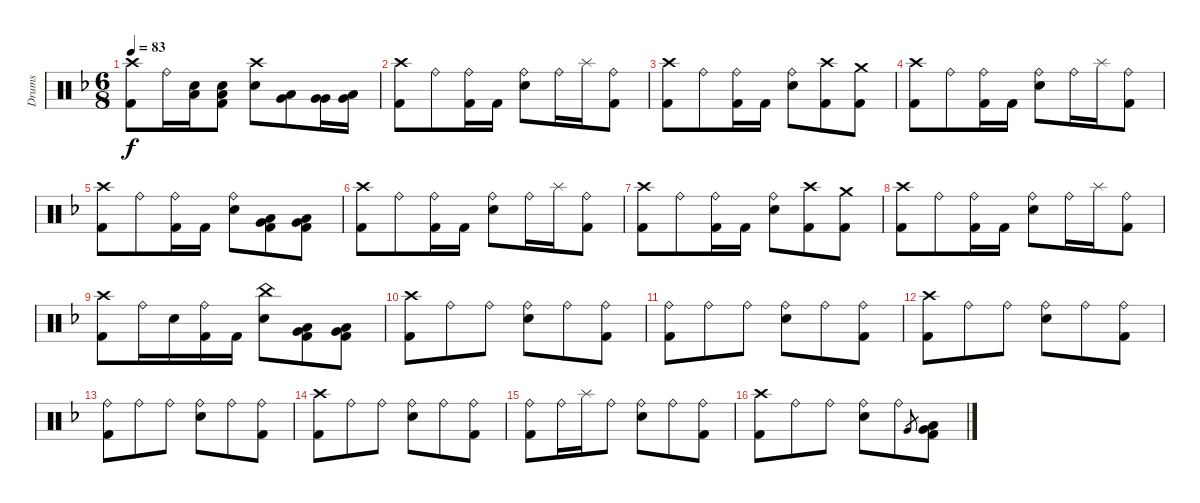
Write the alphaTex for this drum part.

\track ("Drums" "Drums") {instrument percussion}
\staff {score}
\articulation defaults
\ts (6 8)
\tempo 83
\clef neutral
\ks f
("Crash high (hit)" "Kick (hit) 2").8{dy f} "Ride (bell)".16 ("Snare (hit) 2" "Low Floor Tom (hit)").16 ("Snare (hit) 2" "Low Floor Tom (hit)" "Kick (hit) 2").8 ("Crash high (hit)" "Snare (hit) 2").8 ("Very Low Tom (hit)" "Low Tom (hit)").8 ("Very Low Tom (hit)" "Very Low Tom (hit)").16 ("Very Low Tom (hit)" "Low Floor Tom (hit)").16 |
("Crash high (hit)" "Kick (hit) 2").8 "Ride (bell)".8 ("Ride (bell)" "Kick (hit) 2").16 "Kick (hit) 2".16 ("Ride (bell)" "Snare (hit) 2").8 "Ride (bell)".16 "Splash (hit)".16 ("Ride (bell)" "Kick (hit) 2").8 |
("Crash high (hit)" "Kick (hit) 2").8 "Ride (bell)".8 ("Ride (bell)" "Kick (hit) 2").16 "Kick (hit) 2".16 ("Ride (bell)" "Snare (hit) 2").8 ("Crash high (hit)" "Kick (hit) 2").8 ("Crash medium (hit)" "Kick (hit) 2").8 |
("Crash high (hit)" "Kick (hit) 2").8 "Ride (bell)".8 ("Ride (bell)" "Kick (hit) 2").16 "Kick (hit) 2".16 ("Ride (bell)" "Snare (hit) 2").8 "Ride (bell)".16 "Splash (hit)".16 ("Ride (bell)" "Kick (hit) 2").8 |
("Crash high (hit)" "Kick (hit) 2").8 "Ride (bell)".8 ("Ride (bell)" "Kick (hit) 2").16 "Kick (hit) 2".16 ("Ride (bell)" "Snare (hit) 2").8 ("Low Tom (hit)" "Very Low Tom (hit)" "Kick (hit) 2").8 ("Very Low Tom (hit)" "Low Floor Tom (hit)" "Kick (hit) 2").8 |
("Crash high (hit)" "Kick (hit) 2").8 "Ride (bell)".8 ("Ride (bell)" "Kick (hit) 2").16 "Kick (hit) 2".16 ("Ride (bell)" "Snare (hit) 2").8 "Ride (bell)".16 "Splash (hit)".16 ("Ride (bell)" "Kick (hit) 2").8 |
("Crash high (hit)" "Kick (hit) 2").8 "Ride (bell)".8 ("Ride (bell)" "Kick (hit) 2").16 "Kick (hit) 2".16 ("Ride (bell)" "Snare (hit) 2").8 ("Crash high (hit)" "Kick (hit) 2").8 ("Crash medium (hit)" "Kick (hit) 2").8 |
("Crash high (hit)" "Kick (hit) 2").8 "Ride (bell)".8 ("Ride (bell)" "Kick (hit) 2").16 "Kick (hit) 2".16 ("Ride (bell)" "Snare (hit) 2").8 "Ride (bell)".16 "Splash (hit)".16 ("Ride (bell)" "Kick (hit) 2").8 |
("Crash high (hit)" "Kick (hit) 2").8 "Ride (bell)".16 "Snare (hit) 2".16 ("Ride (bell)" "Kick (hit) 2").16 "Kick (hit) 2".16 ("China (hit)" "Snare (hit) 2").8 ("Low Tom (hit)" "Very Low Tom (hit)" "Kick (hit) 2").8 ("Very Low Tom (hit)" "Low Floor Tom (hit)" "Kick (hit) 2").8 |
("Crash high (hit)" "Kick (hit) 2").8 "Ride (bell)".8 "Ride (bell)".8 ("Ride (bell)" "Snare (hit) 2").8 "Ride (bell)".8 ("Ride (bell)" "Kick (hit) 2").8 |
("Ride (bell)" "Kick (hit) 2").8 "Ride (bell)".8 "Ride (bell)".8 ("Ride (bell)" "Snare (hit) 2").8 "Ride (bell)".8 ("Ride (bell)" "Kick (hit) 2").8 |
("Crash high (hit)" "Kick (hit) 2").8 "Ride (bell)".8 "Ride (bell)".8 ("Ride (bell)" "Snare (hit) 2").8 "Ride (bell)".8 ("Ride (bell)" "Kick (hit) 2").8 |
("Ride (bell)" "Kick (hit) 2").8 "Ride (bell)".8 "Ride (bell)".8 ("Ride (bell)" "Snare (hit) 2").8 "Ride (bell)".8 ("Ride (bell)" "Kick (hit) 2").8 |
("Crash high (hit)" "Kick (hit) 2").8 "Ride (bell)".8 "Ride (bell)".8 ("Ride (bell)" "Snare (hit) 2").8 "Ride (bell)".8 ("Ride (bell)" "Kick (hit) 2").8 |
("Ride (bell)" "Kick (hit) 2").8 "Ride (bell)".16 "Splash (hit)".16 "Ride (bell)".8 ("Ride (bell)" "Snare (hit) 2").8 "Ride (bell)".8 ("Ride (bell)" "Kick (hit) 2").8 |
("Crash high (hit)" "Kick (hit) 2").8 "Ride (bell)".8 "Ride (bell)".8 ("Ride (bell)" "Snare (hit) 2").8 "Ride (bell)".8 "Very Low Tom (hit)".8{gr} ("Very Low Tom (hit)" "Low Floor Tom (hit)" "Kick (hit) 2").8
